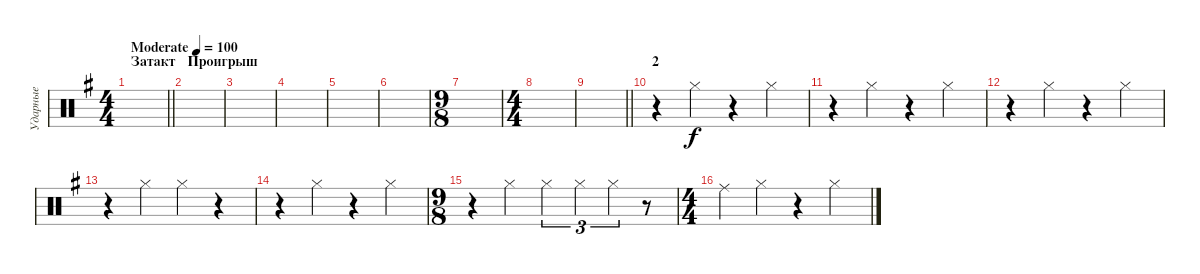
\track ("Ударные" "Ударные") {instrument percussion}
\staff {score}
\articulation defaults
\ts (4 4)
\section ("" "Затакт")
\tempo (100 "Moderate")
\clef neutral
\barLineRight lightlight
\ks eminor
|
\section ("" "Проигрыш")
|
|
|
|
|
\ts (9 8)
|
\ts (4 4)
|
\barLineRight lightlight
|
\section ("" "2")
r.4 "Hi-Hat (closed)".4 r.4 "Hi-Hat (closed)".4 |
r.4 "Hi-Hat (closed)".4 r.4 "Hi-Hat (closed)".4 |
r.4 "Hi-Hat (closed)".4 r.4 "Hi-Hat (closed)".4 |
r.4 "Hi-Hat (closed)".4 "Hi-Hat (closed)".4 r.4 |
r.4 "Hi-Hat (closed)".4 r.4 "Hi-Hat (closed)".4 |
\ts (9 8)
r.4 "Hi-Hat (closed)".4 "Hi-Hat (closed)".4{tu (3 2)} "Hi-Hat (closed)".4{tu (3 2)} "Hi-Hat (closed)".4{tu (3 2)} r.8 |
\ts (4 4)
"Ride (middle)".4 "Hi-Hat (closed)".4 r.4 "Hi-Hat (closed)".4
